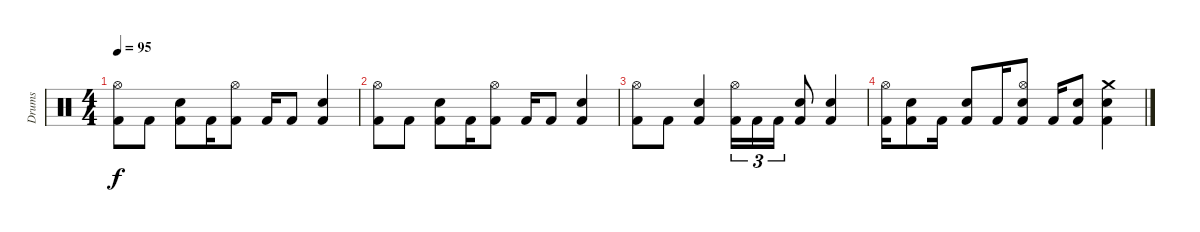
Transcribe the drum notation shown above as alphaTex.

\track ("Drums" "Drums") {instrument percussion}
\staff {score}
\articulation defaults
\ts (4 4)
\tempo 95
\clef neutral
\ks c
("Kick (hit) 2" "Hi-Hat (open)").8{dy f} "Kick (hit) 2".8 ("Kick (hit) 2" "Electric Snare (hit)").8 "Kick (hit) 2".16 ("Kick (hit) 2" "Hi-Hat (open)").8 "Kick (hit) 2".16 "Kick (hit) 2".8 ("Kick (hit) 2" "Electric Snare (hit)").4 |
("Kick (hit) 2" "Hi-Hat (open)").8 "Kick (hit) 2".8 ("Kick (hit) 2" "Electric Snare (hit)").8 "Kick (hit) 2".16 ("Kick (hit) 2" "Hi-Hat (open)").8 "Kick (hit) 2".16 "Kick (hit) 2".8 ("Kick (hit) 2" "Electric Snare (hit)").4 |
("Kick (hit) 2" "Hi-Hat (open)").8 "Kick (hit) 2".8 ("Kick (hit) 2" "Electric Snare (hit)").4 ("Kick (hit) 2" "Hi-Hat (open)").16{tu (3 2)} "Kick (hit) 2".16{tu (3 2)} "Kick (hit) 2".16{tu (3 2)} ("Kick (hit) 2" "Electric Snare (hit)").8 ("Kick (hit) 2" "Electric Snare (hit)").4 |
("Kick (hit) 2" "Hi-Hat (open)").16 ("Kick (hit) 2" "Electric Snare (hit)").8 "Kick (hit) 2".16 ("Kick (hit) 2" "Electric Snare (hit)").8 "Kick (hit) 2".16 ("Kick (hit) 2" "Electric Snare (hit)" "Hi-Hat (open)").8 "Kick (hit) 2".16 ("Kick (hit) 2" "Electric Snare (hit)").8 ("Kick (hit) 2" "Electric Snare (hit)" "Crash medium (hit)").4
